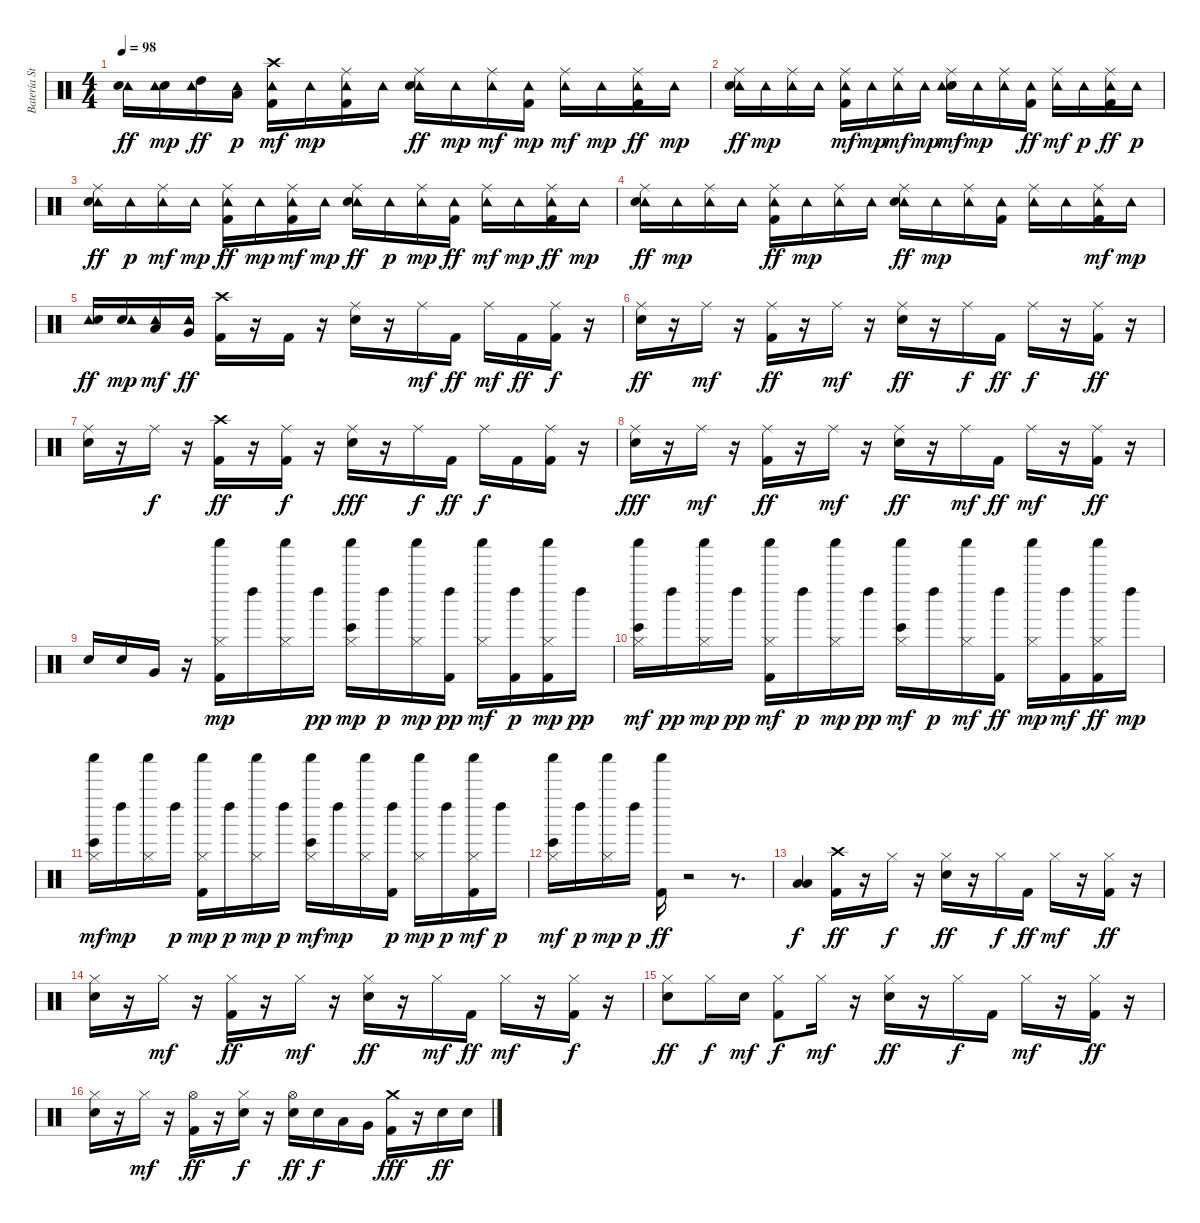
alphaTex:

\track ("Batería Standard" "Batería St") {instrument percussion}
\staff {score}
\articulation defaults
\ts (4 4)
\tempo 98
\clef neutral
\ks c
("Tambourine (hit)" "Electric Snare (hit)").16{dy ff} ("Electric Snare (hit)" "Tambourine (hit)").16{dy mp} ("Tambourine (hit)" "High Tom (hit)").16{dy ff} ("Low Tom (hit)" "Tambourine (hit)").16{dy p} ("Crash high (hit)" "Kick (hit) 2" "Tambourine (hit)").16{dy mf} "Tambourine (hit)".16{dy mp} ("Tambourine (hit)" "Ride (middle)" "Kick (hit) 2").16 "Tambourine (hit)".16 ("Tambourine (hit)" "Electric Snare (hit)" "Ride (middle)").16{dy ff} "Tambourine (hit)".16{dy mp} ("Tambourine (hit)" "Ride (middle)").16{dy mf} ("Kick (hit) 2" "Tambourine (hit)").16{dy mp} ("Tambourine (hit)" "Ride (middle)").16{dy mf} "Tambourine (hit)".16{dy mp} ("Ride (middle)" "Tambourine (hit)" "Kick (hit) 2").16{dy ff} "Tambourine (hit)".16{dy mp} |
("Ride (middle)" "Tambourine (hit)" "Electric Snare (hit)").16{dy ff} "Tambourine (hit)".16{dy mp} ("Ride (middle)" "Tambourine (hit)").16 "Tambourine (hit)".16 ("Kick (hit) 2" "Ride (middle)" "Tambourine (hit)").16{dy mf} "Tambourine (hit)".16{dy mp} ("Tambourine (hit)" "Ride (middle)").16{dy mf} "Tambourine (hit)".16{dy mp} ("Electric Snare (hit)" "Tambourine (hit)" "Ride (middle)").16{dy mf} "Tambourine (hit)".16{dy mp} ("Tambourine (hit)" "Ride (middle)").16 ("Tambourine (hit)" "Kick (hit) 2").16{dy ff} ("Tambourine (hit)" "Ride (middle)").16{dy mf} "Tambourine (hit)".16{dy p} ("Ride (middle)" "Tambourine (hit)" "Kick (hit) 2").16{dy ff} "Tambourine (hit)".16{dy p} |
("Ride (middle)" "Tambourine (hit)" "Electric Snare (hit)").16{dy ff} "Tambourine (hit)".16{dy p} ("Tambourine (hit)" "Ride (middle)").16{dy mf} "Tambourine (hit)".16{dy mp} ("Tambourine (hit)" "Kick (hit) 2" "Ride (middle)").16{dy ff} "Tambourine (hit)".16{dy mp} ("Tambourine (hit)" "Kick (hit) 2" "Ride (middle)").16{dy mf} "Tambourine (hit)".16{dy mp} ("Tambourine (hit)" "Electric Snare (hit)" "Ride (middle)").16{dy ff} "Tambourine (hit)".16{dy p} ("Ride (middle)" "Tambourine (hit)").16{dy mp} ("Tambourine (hit)" "Kick (hit) 2").16{dy ff} ("Ride (middle)" "Tambourine (hit)").16{dy mf} "Tambourine (hit)".16{dy mp} ("Tambourine (hit)" "Ride (middle)" "Kick (hit) 2").16{dy ff} "Tambourine (hit)".16{dy mp} |
("Tambourine (hit)" "Ride (middle)" "Electric Snare (hit)").16{dy ff} "Tambourine (hit)".16{dy mp} ("Tambourine (hit)" "Ride (middle)").16 "Tambourine (hit)".16 ("Tambourine (hit)" "Kick (hit) 2" "Ride (middle)").16{dy ff} "Tambourine (hit)".16{dy mp} ("Tambourine (hit)" "Ride (middle)").16 "Tambourine (hit)".16 ("Tambourine (hit)" "Ride (middle)" "Electric Snare (hit)").16{dy ff} "Tambourine (hit)".16{dy mp} ("Tambourine (hit)" "Ride (middle)").16 ("Kick (hit) 2" "Tambourine (hit)").16 ("Tambourine (hit)" "Ride (middle)").16 "Tambourine (hit)".16 ("Kick (hit) 2" "Tambourine (hit)" "Ride (middle)").16{dy mf} "Tambourine (hit)".16{dy mp} |
("Tambourine (hit)" "Electric Snare (hit)").16{dy ff} ("Electric Snare (hit)" "Tambourine (hit)").16{dy mp} ("Low Tom (hit)" "Tambourine (hit)").16{dy mf} ("Tambourine (hit)" "Very Low Tom (hit)").16{dy ff} ("Kick (hit) 2" "Crash high (hit)").16 r.16 "Kick (hit) 2".16 r.16 ("Ride (middle)" "Electric Snare (hit)").16 r.16 "Ride (middle)".16{dy mf} "Kick (hit) 2".16{dy ff} "Ride (middle)".16{dy mf} "Kick (hit) 2".16{dy ff} ("Ride (middle)" "Kick (hit) 2").16{dy f} r.16 |
("Ride (middle)" "Electric Snare (hit)").16{dy ff} r.16 "Ride (middle)".16{dy mf} r.16 ("Kick (hit) 2" "Ride (middle)").16{dy ff} r.16 "Ride (middle)".16{dy mf} r.16 ("Electric Snare (hit)" "Ride (middle)").16{dy ff} r.16 "Ride (middle)".16{dy f} "Kick (hit) 2".16{dy ff} "Ride (middle)".16{dy f} r.16 ("Kick (hit) 2" "Ride (middle)").16{dy ff} r.16 |
("Ride (middle)" "Electric Snare (hit)").16 r.16 "Ride (middle)".16{dy f} r.16 ("Crash high (hit)" "Kick (hit) 2").16{dy ff} r.16 ("Kick (hit) 2" "Ride (middle)").16{dy f} r.16 ("Ride (middle)" "Electric Snare (hit)").16{dy fff} r.16 "Ride (middle)".16{dy f} "Kick (hit) 2".16{dy ff} "Ride (middle)".16{dy f} "Kick (hit) 2".16 ("Ride (middle)" "Kick (hit) 2").16 r.16 |
("Ride (middle)" "Electric Snare (hit)").16{dy fff} r.16 "Ride (middle)".16{dy mf} r.16 ("Kick (hit) 2" "Ride (middle)").16{dy ff} r.16 "Ride (middle)".16{dy mf} r.16 ("Ride (middle)" "Electric Snare (hit)").16{dy ff} r.16 "Ride (middle)".16{dy mf} "Kick (hit) 2".16{dy ff} "Ride (middle)".16{dy mf} r.16 ("Kick (hit) 2" "Ride (middle)").16{dy ff} r.16 |
"Electric Snare (hit)".16 "Electric Snare (hit)".16 "Very Low Tom (hit)".16 r.16 ("Shaker (hit)" "Hi-Hat (closed)" "Kick (hit) 2").16{dy mp} "Left Maraca (hit)".16 ("Shaker (hit)" "Hi-Hat (closed)").16 "Left Maraca (hit)".16{dy pp} ("Shaker (hit)" "Bongo High (hit)" "Hi-Hat (closed)").16{dy mp} "Left Maraca (hit)".16{dy p} ("Hi-Hat (closed)" "Shaker (hit)").16{dy mp} ("Left Maraca (hit)" "Kick (hit) 2").16{dy pp} ("Shaker (hit)" "Hi-Hat (closed)").16{dy mf} ("Kick (hit) 2" "Left Maraca (hit)").16{dy p} ("Hi-Hat (closed)" "Kick (hit) 2" "Shaker (hit)").16{dy mp} "Left Maraca (hit)".16{dy pp} |
("Hi-Hat (closed)" "Shaker (hit)" "Bongo High (hit)").16{dy mf} "Left Maraca (hit)".16{dy pp} ("Shaker (hit)" "Hi-Hat (closed)").16{dy mp} "Left Maraca (hit)".16{dy pp} ("Kick (hit) 2" "Shaker (hit)" "Hi-Hat (closed)").16{dy mf} "Left Maraca (hit)".16{dy p} ("Hi-Hat (closed)" "Shaker (hit)").16{dy mp} "Left Maraca (hit)".16{dy pp} ("Bongo High (hit)" "Shaker (hit)" "Hi-Hat (closed)").16{dy mf} "Left Maraca (hit)".16{dy p} ("Shaker (hit)" "Hi-Hat (closed)").16{dy mf} ("Left Maraca (hit)" "Kick (hit) 2").16{dy ff} ("Hi-Hat (closed)" "Shaker (hit)").16{dy mp} ("Left Maraca (hit)" "Kick (hit) 2").16{dy mf} ("Hi-Hat (closed)" "Shaker (hit)" "Kick (hit) 2").16{dy ff} "Left Maraca (hit)".16{dy mp} |
("Hi-Hat (closed)" "Shaker (hit)" "Bongo High (hit)").16{dy mf} "Left Maraca (hit)".16{dy mp} ("Hi-Hat (closed)" "Shaker (hit)").16 "Left Maraca (hit)".16{dy p} ("Hi-Hat (closed)" "Kick (hit) 2" "Shaker (hit)").16{dy mp} "Left Maraca (hit)".16{dy p} ("Hi-Hat (closed)" "Shaker (hit)").16{dy mp} "Left Maraca (hit)".16{dy p} ("Shaker (hit)" "Bongo High (hit)" "Hi-Hat (closed)").16{dy mf} "Left Maraca (hit)".16{dy mp} ("Hi-Hat (closed)" "Shaker (hit)").16 ("Left Maraca (hit)" "Kick (hit) 2").16{dy p} ("Hi-Hat (closed)" "Shaker (hit)").16{dy mp} "Left Maraca (hit)".16{dy p} ("Kick (hit) 2" "Shaker (hit)" "Hi-Hat (closed)").16{dy mf} "Left Maraca (hit)".16{dy p} |
("Shaker (hit)" "Bongo High (hit)" "Hi-Hat (closed)").16{dy mf} "Left Maraca (hit)".16{dy p} ("Shaker (hit)" "Hi-Hat (closed)").16{dy mp} "Left Maraca (hit)".16{dy p} ("Shaker (hit)" "Kick (hit) 2").16{dy ff} r.2 r.8{d} |
("Low Floor Tom (hit)" "Low Floor Tom (hit)").4{dy f} ("Crash high (hit)" "Kick (hit) 2").16{dy ff} r.16 "Hi-Hat (closed)".16{dy f} r.16 ("Hi-Hat (closed)" "Electric Snare (hit)").16{dy ff} r.16 "Hi-Hat (closed)".16{dy f} "Kick (hit) 2".16{dy ff} "Hi-Hat (closed)".16{dy mf} r.16 ("Kick (hit) 2" "Hi-Hat (closed)").16{dy ff} r.16 |
("Hi-Hat (closed)" "Electric Snare (hit)").16 r.16 "Hi-Hat (closed)".16{dy mf} r.16 ("Hi-Hat (closed)" "Kick (hit) 2").16{dy ff} r.16 "Hi-Hat (closed)".16{dy mf} r.16 ("Hi-Hat (closed)" "Electric Snare (hit)").16{dy ff} r.16 "Hi-Hat (closed)".16{dy mf} "Kick (hit) 2".16{dy ff} "Hi-Hat (closed)".16{dy mf} r.16 ("Kick (hit) 2" "Hi-Hat (closed)").16{dy f} r.16 |
("Electric Snare (hit)" "Hi-Hat (closed)").8{dy ff} "Hi-Hat (closed)".16{dy f} "Electric Snare (hit)".16{dy mf} ("Kick (hit) 2" "Hi-Hat (closed)").8{dy f} "Hi-Hat (closed)".16{dy mf} r.16 ("Electric Snare (hit)" "Hi-Hat (closed)").16{dy ff} r.16 "Hi-Hat (closed)".16{dy f} "Kick (hit) 2".16 "Hi-Hat (closed)".16{dy mf} r.16 ("Kick (hit) 2" "Hi-Hat (closed)").16{dy ff} r.16 |
("Electric Snare (hit)" "Hi-Hat (closed)").16 r.16 "Hi-Hat (closed)".16{dy mf} r.16 ("Hi-Hat (open)" "Kick (hit) 2").16{dy ff} r.16 ("Electric Snare (hit)" "Hi-Hat (closed)").16{dy f} r.16 ("Electric Snare (hit)" "Hi-Hat (open)").16{dy ff} "Electric Snare (hit)".16{dy f} "Low Tom (hit)".16 "Very Low Tom (hit)".16 ("Crash medium (hit)" "Kick (hit) 2").16{dy fff} r.16 "Electric Snare (hit)".16{dy ff} "Electric Snare (hit)".16
